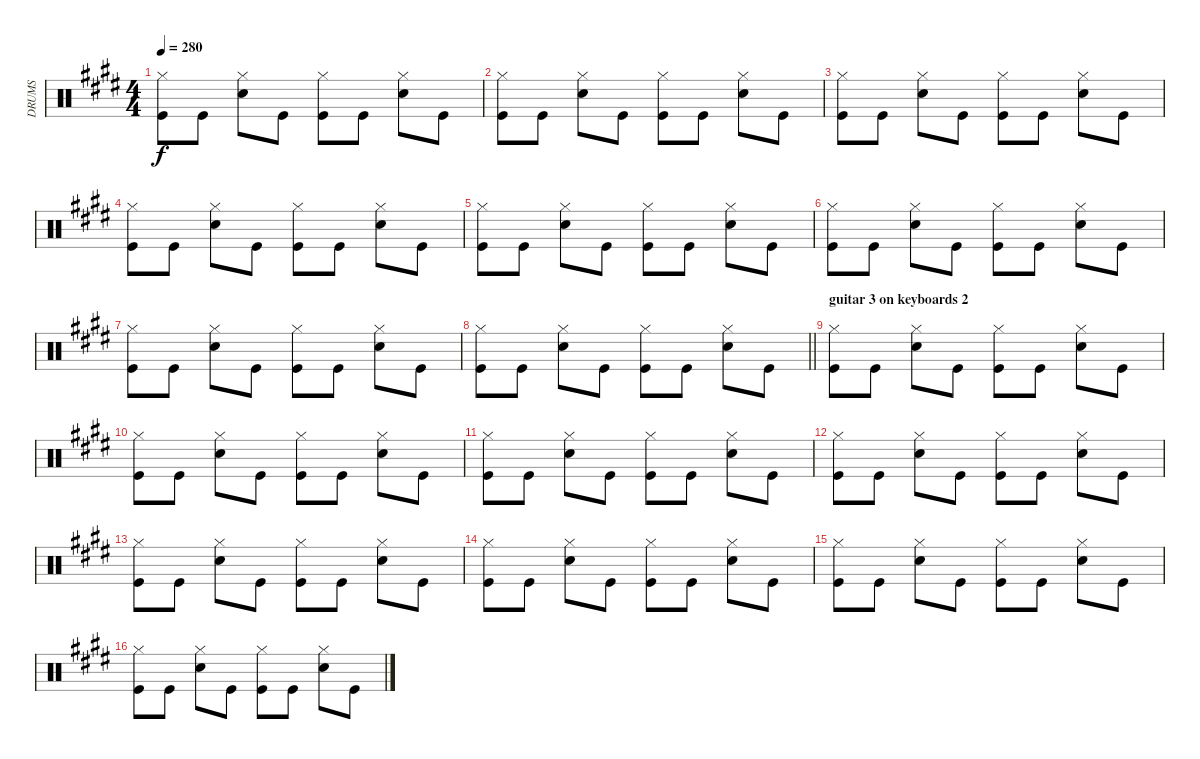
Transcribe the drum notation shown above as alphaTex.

\track ("DRUMS" "DRUMS") {instrument percussion}
\staff {score}
\articulation defaults
\ts (4 4)
\tempo 280
\clef neutral
\ks c#minor
("Hi-Hat (closed)" "Kick (hit)").8{dy f} "Kick (hit)".8 ("Hi-Hat (closed)" "Snare (hit) 2").8 "Kick (hit)".8 ("Hi-Hat (closed)" "Kick (hit)").8 "Kick (hit)".8 ("Hi-Hat (closed)" "Snare (hit) 2").8 "Kick (hit)".8 |
("Hi-Hat (closed)" "Kick (hit)").8 "Kick (hit)".8 ("Hi-Hat (closed)" "Snare (hit) 2").8 "Kick (hit)".8 ("Hi-Hat (closed)" "Kick (hit)").8 "Kick (hit)".8 ("Hi-Hat (closed)" "Snare (hit) 2").8 "Kick (hit)".8 |
("Hi-Hat (closed)" "Kick (hit)").8 "Kick (hit)".8 ("Hi-Hat (closed)" "Snare (hit) 2").8 "Kick (hit)".8 ("Hi-Hat (closed)" "Kick (hit)").8 "Kick (hit)".8 ("Hi-Hat (closed)" "Snare (hit) 2").8 "Kick (hit)".8 |
("Hi-Hat (closed)" "Kick (hit)").8 "Kick (hit)".8 ("Hi-Hat (closed)" "Snare (hit) 2").8 "Kick (hit)".8 ("Hi-Hat (closed)" "Kick (hit)").8 "Kick (hit)".8 ("Hi-Hat (closed)" "Snare (hit) 2").8 "Kick (hit)".8 |
("Hi-Hat (closed)" "Kick (hit)").8 "Kick (hit)".8 ("Hi-Hat (closed)" "Snare (hit) 2").8 "Kick (hit)".8 ("Hi-Hat (closed)" "Kick (hit)").8 "Kick (hit)".8 ("Hi-Hat (closed)" "Snare (hit) 2").8 "Kick (hit)".8 |
("Hi-Hat (closed)" "Kick (hit)").8 "Kick (hit)".8 ("Hi-Hat (closed)" "Snare (hit) 2").8 "Kick (hit)".8 ("Hi-Hat (closed)" "Kick (hit)").8 "Kick (hit)".8 ("Hi-Hat (closed)" "Snare (hit) 2").8 "Kick (hit)".8 |
("Hi-Hat (closed)" "Kick (hit)").8 "Kick (hit)".8 ("Hi-Hat (closed)" "Snare (hit) 2").8 "Kick (hit)".8 ("Hi-Hat (closed)" "Kick (hit)").8 "Kick (hit)".8 ("Hi-Hat (closed)" "Snare (hit) 2").8 "Kick (hit)".8 |
\barLineRight lightlight
("Hi-Hat (closed)" "Kick (hit)").8 "Kick (hit)".8 ("Hi-Hat (closed)" "Snare (hit) 2").8 "Kick (hit)".8 ("Hi-Hat (closed)" "Kick (hit)").8 "Kick (hit)".8 ("Hi-Hat (closed)" "Snare (hit) 2").8 "Kick (hit)".8 |
\section ("" "guitar 3 on keyboards 2")
("Hi-Hat (closed)" "Kick (hit)").8 "Kick (hit)".8 ("Hi-Hat (closed)" "Snare (hit) 2").8 "Kick (hit)".8 ("Hi-Hat (closed)" "Kick (hit)").8 "Kick (hit)".8 ("Hi-Hat (closed)" "Snare (hit) 2").8 "Kick (hit)".8 |
("Hi-Hat (closed)" "Kick (hit)").8 "Kick (hit)".8 ("Hi-Hat (closed)" "Snare (hit) 2").8 "Kick (hit)".8 ("Hi-Hat (closed)" "Kick (hit)").8 "Kick (hit)".8 ("Hi-Hat (closed)" "Snare (hit) 2").8 "Kick (hit)".8 |
("Hi-Hat (closed)" "Kick (hit)").8 "Kick (hit)".8 ("Hi-Hat (closed)" "Snare (hit) 2").8 "Kick (hit)".8 ("Hi-Hat (closed)" "Kick (hit)").8 "Kick (hit)".8 ("Hi-Hat (closed)" "Snare (hit) 2").8 "Kick (hit)".8 |
("Hi-Hat (closed)" "Kick (hit)").8 "Kick (hit)".8 ("Hi-Hat (closed)" "Snare (hit) 2").8 "Kick (hit)".8 ("Hi-Hat (closed)" "Kick (hit)").8 "Kick (hit)".8 ("Hi-Hat (closed)" "Snare (hit) 2").8 "Kick (hit)".8 |
("Hi-Hat (closed)" "Kick (hit)").8 "Kick (hit)".8 ("Hi-Hat (closed)" "Snare (hit) 2").8 "Kick (hit)".8 ("Hi-Hat (closed)" "Kick (hit)").8 "Kick (hit)".8 ("Hi-Hat (closed)" "Snare (hit) 2").8 "Kick (hit)".8 |
("Hi-Hat (closed)" "Kick (hit)").8 "Kick (hit)".8 ("Hi-Hat (closed)" "Snare (hit) 2").8 "Kick (hit)".8 ("Hi-Hat (closed)" "Kick (hit)").8 "Kick (hit)".8 ("Hi-Hat (closed)" "Snare (hit) 2").8 "Kick (hit)".8 |
("Hi-Hat (closed)" "Kick (hit)").8 "Kick (hit)".8 ("Hi-Hat (closed)" "Snare (hit) 2").8 "Kick (hit)".8 ("Hi-Hat (closed)" "Kick (hit)").8 "Kick (hit)".8 ("Hi-Hat (closed)" "Snare (hit) 2").8 "Kick (hit)".8 |
("Hi-Hat (closed)" "Kick (hit)").8 "Kick (hit)".8 ("Hi-Hat (closed)" "Snare (hit) 2").8 "Kick (hit)".8 ("Hi-Hat (closed)" "Kick (hit)").8 "Kick (hit)".8 ("Hi-Hat (closed)" "Snare (hit) 2").8 "Kick (hit)".8
